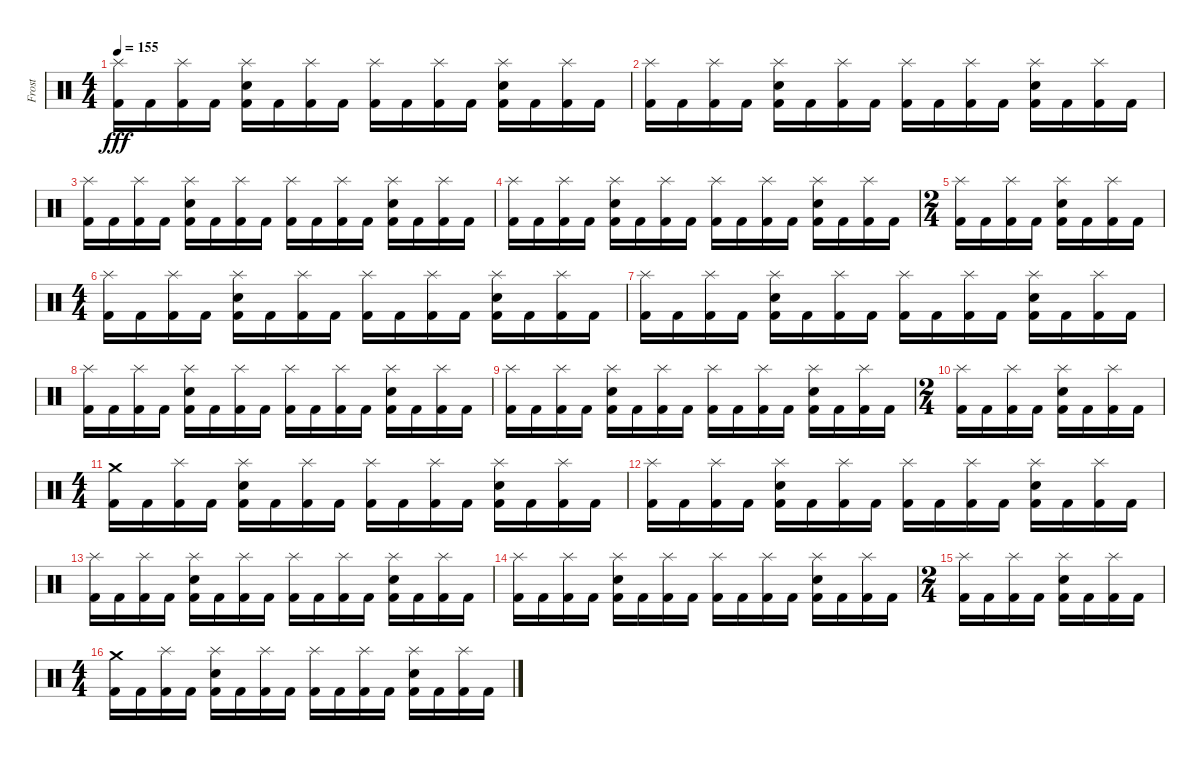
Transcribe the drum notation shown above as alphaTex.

\track ("Frost" "Frost") {instrument percussion}
\staff {score}
\articulation defaults
\ts (4 4)
\tempo 155
\clef neutral
\ks c
("Kick (hit) 2" "Splash (hit)").16{dy fff} "Kick (hit) 2".16 ("Kick (hit) 2" "Splash (hit)").16 "Kick (hit) 2".16 ("Kick (hit) 2" "Snare (hit) 2" "Splash (hit)").16 "Kick (hit) 2".16 ("Kick (hit) 2" "Splash (hit)").16 "Kick (hit) 2".16 ("Kick (hit) 2" "Splash (hit)").16 "Kick (hit) 2".16 ("Kick (hit) 2" "Splash (hit)").16 "Kick (hit) 2".16 ("Kick (hit) 2" "Snare (hit) 2" "Splash (hit)").16 "Kick (hit) 2".16 ("Kick (hit) 2" "Splash (hit)").16 "Kick (hit) 2".16 |
("Kick (hit) 2" "Splash (hit)").16 "Kick (hit) 2".16 ("Kick (hit) 2" "Splash (hit)").16 "Kick (hit) 2".16 ("Kick (hit) 2" "Snare (hit) 2" "Splash (hit)").16 "Kick (hit) 2".16 ("Kick (hit) 2" "Splash (hit)").16 "Kick (hit) 2".16 ("Kick (hit) 2" "Splash (hit)").16 "Kick (hit) 2".16 ("Kick (hit) 2" "Splash (hit)").16 "Kick (hit) 2".16 ("Kick (hit) 2" "Snare (hit) 2" "Splash (hit)").16 "Kick (hit) 2".16 ("Kick (hit) 2" "Splash (hit)").16 "Kick (hit) 2".16 |
("Kick (hit) 2" "Splash (hit)").16 "Kick (hit) 2".16 ("Kick (hit) 2" "Splash (hit)").16 "Kick (hit) 2".16 ("Kick (hit) 2" "Snare (hit) 2" "Splash (hit)").16 "Kick (hit) 2".16 ("Kick (hit) 2" "Splash (hit)").16 "Kick (hit) 2".16 ("Kick (hit) 2" "Splash (hit)").16 "Kick (hit) 2".16 ("Kick (hit) 2" "Splash (hit)").16 "Kick (hit) 2".16 ("Kick (hit) 2" "Snare (hit) 2" "Splash (hit)").16 "Kick (hit) 2".16 ("Kick (hit) 2" "Splash (hit)").16 "Kick (hit) 2".16 |
("Kick (hit) 2" "Splash (hit)").16 "Kick (hit) 2".16 ("Kick (hit) 2" "Splash (hit)").16 "Kick (hit) 2".16 ("Kick (hit) 2" "Snare (hit) 2" "Splash (hit)").16 "Kick (hit) 2".16 ("Kick (hit) 2" "Splash (hit)").16 "Kick (hit) 2".16 ("Kick (hit) 2" "Splash (hit)").16 "Kick (hit) 2".16 ("Kick (hit) 2" "Splash (hit)").16 "Kick (hit) 2".16 ("Kick (hit) 2" "Snare (hit) 2" "Splash (hit)").16 "Kick (hit) 2".16 ("Kick (hit) 2" "Splash (hit)").16 "Kick (hit) 2".16 |
\ts (2 4)
("Kick (hit) 2" "Splash (hit)").16 "Kick (hit) 2".16 ("Kick (hit) 2" "Splash (hit)").16 "Kick (hit) 2".16 ("Kick (hit) 2" "Snare (hit) 2" "Splash (hit)").16 "Kick (hit) 2".16 ("Kick (hit) 2" "Splash (hit)").16 "Kick (hit) 2".16 |
\ts (4 4)
("Kick (hit) 2" "Splash (hit)").16 "Kick (hit) 2".16 ("Kick (hit) 2" "Splash (hit)").16 "Kick (hit) 2".16 ("Kick (hit) 2" "Snare (hit) 2" "Splash (hit)").16 "Kick (hit) 2".16 ("Kick (hit) 2" "Splash (hit)").16 "Kick (hit) 2".16 ("Kick (hit) 2" "Splash (hit)").16 "Kick (hit) 2".16 ("Kick (hit) 2" "Splash (hit)").16 "Kick (hit) 2".16 ("Kick (hit) 2" "Snare (hit) 2" "Splash (hit)").16 "Kick (hit) 2".16 ("Kick (hit) 2" "Splash (hit)").16 "Kick (hit) 2".16 |
("Kick (hit) 2" "Splash (hit)").16 "Kick (hit) 2".16 ("Kick (hit) 2" "Splash (hit)").16 "Kick (hit) 2".16 ("Kick (hit) 2" "Snare (hit) 2" "Splash (hit)").16 "Kick (hit) 2".16 ("Kick (hit) 2" "Splash (hit)").16 "Kick (hit) 2".16 ("Kick (hit) 2" "Splash (hit)").16 "Kick (hit) 2".16 ("Kick (hit) 2" "Splash (hit)").16 "Kick (hit) 2".16 ("Kick (hit) 2" "Snare (hit) 2" "Splash (hit)").16 "Kick (hit) 2".16 ("Kick (hit) 2" "Splash (hit)").16 "Kick (hit) 2".16 |
("Kick (hit) 2" "Splash (hit)").16 "Kick (hit) 2".16 ("Kick (hit) 2" "Splash (hit)").16 "Kick (hit) 2".16 ("Kick (hit) 2" "Snare (hit) 2" "Splash (hit)").16 "Kick (hit) 2".16 ("Kick (hit) 2" "Splash (hit)").16 "Kick (hit) 2".16 ("Kick (hit) 2" "Splash (hit)").16 "Kick (hit) 2".16 ("Kick (hit) 2" "Splash (hit)").16 "Kick (hit) 2".16 ("Kick (hit) 2" "Snare (hit) 2" "Splash (hit)").16 "Kick (hit) 2".16 ("Kick (hit) 2" "Splash (hit)").16 "Kick (hit) 2".16 |
("Kick (hit) 2" "Splash (hit)").16 "Kick (hit) 2".16 ("Kick (hit) 2" "Splash (hit)").16 "Kick (hit) 2".16 ("Kick (hit) 2" "Snare (hit) 2" "Splash (hit)").16 "Kick (hit) 2".16 ("Kick (hit) 2" "Splash (hit)").16 "Kick (hit) 2".16 ("Kick (hit) 2" "Splash (hit)").16 "Kick (hit) 2".16 ("Kick (hit) 2" "Splash (hit)").16 "Kick (hit) 2".16 ("Kick (hit) 2" "Snare (hit) 2" "Splash (hit)").16 "Kick (hit) 2".16 ("Kick (hit) 2" "Splash (hit)").16 "Kick (hit) 2".16 |
\ts (2 4)
("Kick (hit) 2" "Splash (hit)").16 "Kick (hit) 2".16 ("Kick (hit) 2" "Splash (hit)").16 "Kick (hit) 2".16 ("Kick (hit) 2" "Snare (hit) 2" "Splash (hit)").16 "Kick (hit) 2".16 ("Kick (hit) 2" "Splash (hit)").16 "Kick (hit) 2".16 |
\ts (4 4)
("Kick (hit) 2" "Crash medium (hit)").16 "Kick (hit) 2".16 ("Kick (hit) 2" "Splash (hit)").16 "Kick (hit) 2".16 ("Kick (hit) 2" "Snare (hit) 2" "Splash (hit)").16 "Kick (hit) 2".16 ("Kick (hit) 2" "Splash (hit)").16 "Kick (hit) 2".16 ("Kick (hit) 2" "Splash (hit)").16 "Kick (hit) 2".16 ("Kick (hit) 2" "Splash (hit)").16 "Kick (hit) 2".16 ("Kick (hit) 2" "Snare (hit) 2" "Splash (hit)").16 "Kick (hit) 2".16 ("Kick (hit) 2" "Splash (hit)").16 "Kick (hit) 2".16 |
("Kick (hit) 2" "Splash (hit)").16 "Kick (hit) 2".16 ("Kick (hit) 2" "Splash (hit)").16 "Kick (hit) 2".16 ("Kick (hit) 2" "Snare (hit) 2" "Splash (hit)").16 "Kick (hit) 2".16 ("Kick (hit) 2" "Splash (hit)").16 "Kick (hit) 2".16 ("Kick (hit) 2" "Splash (hit)").16 "Kick (hit) 2".16 ("Kick (hit) 2" "Splash (hit)").16 "Kick (hit) 2".16 ("Kick (hit) 2" "Snare (hit) 2" "Splash (hit)").16 "Kick (hit) 2".16 ("Kick (hit) 2" "Splash (hit)").16 "Kick (hit) 2".16 |
("Kick (hit) 2" "Splash (hit)").16 "Kick (hit) 2".16 ("Kick (hit) 2" "Splash (hit)").16 "Kick (hit) 2".16 ("Kick (hit) 2" "Snare (hit) 2" "Splash (hit)").16 "Kick (hit) 2".16 ("Kick (hit) 2" "Splash (hit)").16 "Kick (hit) 2".16 ("Kick (hit) 2" "Splash (hit)").16 "Kick (hit) 2".16 ("Kick (hit) 2" "Splash (hit)").16 "Kick (hit) 2".16 ("Kick (hit) 2" "Snare (hit) 2" "Splash (hit)").16 "Kick (hit) 2".16 ("Kick (hit) 2" "Splash (hit)").16 "Kick (hit) 2".16 |
("Kick (hit) 2" "Splash (hit)").16 "Kick (hit) 2".16 ("Kick (hit) 2" "Splash (hit)").16 "Kick (hit) 2".16 ("Kick (hit) 2" "Snare (hit) 2" "Splash (hit)").16 "Kick (hit) 2".16 ("Kick (hit) 2" "Splash (hit)").16 "Kick (hit) 2".16 ("Kick (hit) 2" "Splash (hit)").16 "Kick (hit) 2".16 ("Kick (hit) 2" "Splash (hit)").16 "Kick (hit) 2".16 ("Kick (hit) 2" "Snare (hit) 2" "Splash (hit)").16 "Kick (hit) 2".16 ("Kick (hit) 2" "Splash (hit)").16 "Kick (hit) 2".16 |
\ts (2 4)
("Kick (hit) 2" "Splash (hit)").16 "Kick (hit) 2".16 ("Kick (hit) 2" "Splash (hit)").16 "Kick (hit) 2".16 ("Kick (hit) 2" "Snare (hit) 2" "Splash (hit)").16 "Kick (hit) 2".16 ("Kick (hit) 2" "Splash (hit)").16 "Kick (hit) 2".16 |
\ts (4 4)
("Kick (hit) 2" "Crash medium (hit)").16 "Kick (hit) 2".16 ("Kick (hit) 2" "Splash (hit)").16 "Kick (hit) 2".16 ("Kick (hit) 2" "Snare (hit) 2" "Splash (hit)").16 "Kick (hit) 2".16 ("Kick (hit) 2" "Splash (hit)").16 "Kick (hit) 2".16 ("Kick (hit) 2" "Splash (hit)").16 "Kick (hit) 2".16 ("Kick (hit) 2" "Splash (hit)").16 "Kick (hit) 2".16 ("Kick (hit) 2" "Snare (hit) 2" "Splash (hit)").16 "Kick (hit) 2".16 ("Kick (hit) 2" "Splash (hit)").16 "Kick (hit) 2".16
